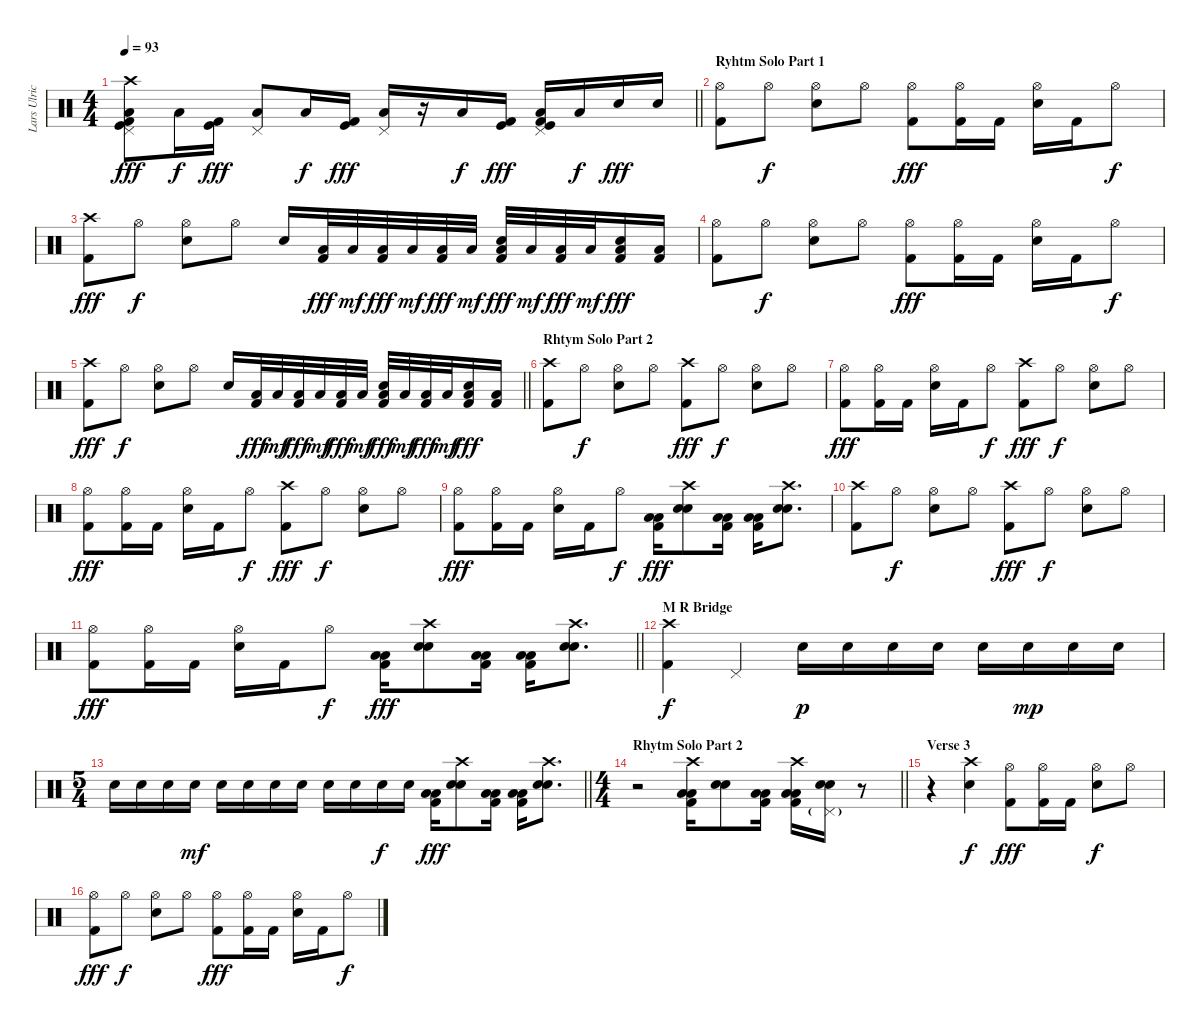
\track ("Lars Ulrich" "Lars Ulric") {instrument percussion}
\staff {score}
\articulation defaults
\ts (4 4)
\tempo 93
\clef neutral
\barLineRight lightlight
\ks c
("Crash high (hit)" "Pedal Hi-Hat (hit)" "Low Floor Tom (hit)" "Kick (hit)" "Kick (hit) 2").8{dy fff} "Low Floor Tom (hit)".16{dy f} ("Kick (hit)" "Kick (hit) 2").16{dy fff} ("Pedal Hi-Hat (hit)" "Low Floor Tom (hit)").8 "Low Floor Tom (hit)".16{dy f} ("Kick (hit)" "Kick (hit) 2").16{dy fff} ("Pedal Hi-Hat (hit)" "Low Floor Tom (hit)").16 r.16 "Low Floor Tom (hit)".16{dy f} ("Kick (hit)" "Kick (hit) 2").16{dy fff} ("Pedal Hi-Hat (hit)" "Low Floor Tom (hit)" "Kick (hit)" "Kick (hit) 2").16 "Low Floor Tom (hit)".16{dy f} "Electric Snare (hit)".16{dy fff} "Electric Snare (hit)".16 |
\section ("" "Ryhtm Solo Part 1")
("Hi-Hat (open)" "Kick (hit) 2").8 "Hi-Hat (open)".8{dy f} ("Hi-Hat (open)" "Snare (hit) 2").8 "Hi-Hat (open)".8 ("Hi-Hat (open)" "Kick (hit) 2").8{dy fff} ("Hi-Hat (open)" "Kick (hit) 2").16 "Kick (hit) 2".16 ("Hi-Hat (open)" "Snare (hit) 2").16 "Kick (hit) 2".16 "Hi-Hat (open)".8{dy f} |
("Crash high (hit)" "Kick (hit) 2").8{dy fff} "Hi-Hat (open)".8{dy f} ("Hi-Hat (open)" "Snare (hit) 2").8 "Hi-Hat (open)".8 "Snare (hit) 2".16 ("Low Floor Tom (hit)" "Kick (hit) 2").32{dy fff} "Low Floor Tom (hit)".32{dy mf} ("Low Floor Tom (hit)" "Kick (hit) 2").32{dy fff} "Low Floor Tom (hit)".32{dy mf} ("Low Floor Tom (hit)" "Kick (hit) 2").32{dy fff} "Low Floor Tom (hit)".32{dy mf} ("Snare (hit) 2" "Low Floor Tom (hit)" "Kick (hit) 2").32{dy fff} "Low Floor Tom (hit)".32{dy mf} ("Low Floor Tom (hit)" "Kick (hit) 2").32{dy fff} "Low Floor Tom (hit)".32{dy mf} ("Snare (hit) 2" "Low Floor Tom (hit)" "Kick (hit) 2").16{dy fff} ("Low Floor Tom (hit)" "Kick (hit) 2").16 |
("Hi-Hat (open)" "Kick (hit) 2").8 "Hi-Hat (open)".8{dy f} ("Hi-Hat (open)" "Snare (hit) 2").8 "Hi-Hat (open)".8 ("Hi-Hat (open)" "Kick (hit) 2").8{dy fff} ("Hi-Hat (open)" "Kick (hit) 2").16 "Kick (hit) 2".16 ("Hi-Hat (open)" "Snare (hit) 2").16 "Kick (hit) 2".16 "Hi-Hat (open)".8{dy f} |
\barLineRight lightlight
("Crash high (hit)" "Kick (hit) 2").8{dy fff} "Hi-Hat (open)".8{dy f} ("Hi-Hat (open)" "Snare (hit) 2").8 "Hi-Hat (open)".8 "Snare (hit) 2".16 ("Low Floor Tom (hit)" "Kick (hit) 2").32{dy fff} "Low Floor Tom (hit)".32{dy mf} ("Low Floor Tom (hit)" "Kick (hit) 2").32{dy fff} "Low Floor Tom (hit)".32{dy mf} ("Low Floor Tom (hit)" "Kick (hit) 2").32{dy fff} "Low Floor Tom (hit)".32{dy mf} ("Snare (hit) 2" "Low Floor Tom (hit)" "Kick (hit) 2").32{dy fff} "Low Floor Tom (hit)".32{dy mf} ("Low Floor Tom (hit)" "Kick (hit) 2").32{dy fff} "Low Floor Tom (hit)".32{dy mf} ("Snare (hit) 2" "Low Floor Tom (hit)" "Kick (hit) 2").16{dy fff} ("Low Floor Tom (hit)" "Kick (hit) 2").16 |
\section ("" "Rhtym Solo Part 2")
("Crash high (hit)" "Kick (hit) 2").8 "Hi-Hat (open)".8{dy f} ("Hi-Hat (open)" "Snare (hit) 2").8 "Hi-Hat (open)".8 ("Crash high (hit)" "Kick (hit) 2").8{dy fff} "Hi-Hat (open)".8{dy f} ("Hi-Hat (open)" "Snare (hit) 2").8 "Hi-Hat (open)".8 |
("Hi-Hat (open)" "Kick (hit) 2").8{dy fff} ("Hi-Hat (open)" "Kick (hit) 2").16 "Kick (hit) 2".16 ("Hi-Hat (open)" "Snare (hit) 2").16 "Kick (hit) 2".16 "Hi-Hat (open)".8{dy f} ("Crash high (hit)" "Kick (hit) 2").8{dy fff} "Hi-Hat (open)".8{dy f} ("Hi-Hat (open)" "Snare (hit) 2").8 "Hi-Hat (open)".8 |
("Hi-Hat (open)" "Kick (hit) 2").8{dy fff} ("Hi-Hat (open)" "Kick (hit) 2").16 "Kick (hit) 2".16 ("Hi-Hat (open)" "Snare (hit) 2").16 "Kick (hit) 2".16 "Hi-Hat (open)".8{dy f} ("Crash high (hit)" "Kick (hit) 2").8{dy fff} "Hi-Hat (open)".8{dy f} ("Hi-Hat (open)" "Snare (hit) 2").8 "Hi-Hat (open)".8 |
("Hi-Hat (open)" "Kick (hit) 2").8{dy fff} ("Hi-Hat (open)" "Kick (hit) 2").16 "Kick (hit) 2".16 ("Hi-Hat (open)" "Snare (hit) 2").16 "Kick (hit) 2".16 "Hi-Hat (open)".8{dy f} ("Low Tom (hit)" "Low Floor Tom (hit)" "Kick (hit) 2").16{dy fff} ("Crash high (hit)" "Electric Snare (hit)" "Snare (hit) 2").8 ("Low Tom (hit)" "Low Floor Tom (hit)" "Kick (hit) 2").16 ("Low Tom (hit)" "Low Floor Tom (hit)" "Kick (hit) 2").16 ("Crash high (hit)" "Electric Snare (hit)" "Snare (hit) 2").8{d} |
("Crash high (hit)" "Kick (hit) 2").8 "Hi-Hat (open)".8{dy f} ("Hi-Hat (open)" "Snare (hit) 2").8 "Hi-Hat (open)".8 ("Crash high (hit)" "Kick (hit) 2").8{dy fff} "Hi-Hat (open)".8{dy f} ("Hi-Hat (open)" "Snare (hit) 2").8 "Hi-Hat (open)".8 |
\barLineRight lightlight
("Hi-Hat (open)" "Kick (hit) 2").8{dy fff} ("Hi-Hat (open)" "Kick (hit) 2").16 "Kick (hit) 2".16 ("Hi-Hat (open)" "Snare (hit) 2").16 "Kick (hit) 2".16 "Hi-Hat (open)".8{dy f} ("Low Tom (hit)" "Low Floor Tom (hit)" "Kick (hit) 2").16{dy fff} ("Crash high (hit)" "Electric Snare (hit)" "Snare (hit) 2").8 ("Low Tom (hit)" "Low Floor Tom (hit)" "Kick (hit) 2").16 ("Low Tom (hit)" "Low Floor Tom (hit)" "Kick (hit) 2").16 ("Crash high (hit)" "Electric Snare (hit)" "Snare (hit) 2").8{d} |
\section ("" "M R Bridge")
("Crash high (hit)" "Kick (hit) 2").4{dy f} "Pedal Hi-Hat (hit)".4 "Snare (hit) 2".16{dy p} "Snare (hit) 2".16 "Snare (hit) 2".16 "Snare (hit) 2".16 "Snare (hit) 2".16 "Snare (hit) 2".16{dy mp} "Snare (hit) 2".16 "Snare (hit) 2".16 |
\ts (5 4)
\barLineRight lightlight "Snare (hit) 2".16 "Snare (hit) 2".16 "Snare (hit) 2".16 "Snare (hit) 2".16{dy mf} "Snare (hit) 2".16 "Snare (hit) 2".16 "Snare (hit) 2".16 "Snare (hit) 2".16 "Snare (hit) 2".16 "Snare (hit) 2".16 "Snare (hit) 2".16{dy f} "Snare (hit) 2".16
("Low Tom (hit)" "Low Floor Tom (hit)" "Kick (hit) 2").16{dy fff} ("Crash high (hit)" "Electric Snare (hit)" "Snare (hit) 2").8 ("Low Tom (hit)" "Low Floor Tom (hit)" "Kick (hit) 2").16 ("Low Tom (hit)" "Low Floor Tom (hit)" "Kick (hit) 2").16 ("Crash high (hit)" "Electric Snare (hit)" "Snare (hit) 2").8{d} |
\ts (4 4)
\section ("" "Rhytm Solo Part 2")
\barLineRight lightlight
r.2 ("Crash high (hit)" "Low Tom (hit)" "Low Floor Tom (hit)" "Kick (hit) 2").16 ("Electric Snare (hit)" "Snare (hit) 2").8 ("Low Tom (hit)" "Low Floor Tom (hit)" "Kick (hit) 2").16 ("Crash high (hit)" "Low Tom (hit)" "Low Floor Tom (hit)" "Kick (hit) 2").16 ("Pedal Hi-Hat (hit)"{g} "Electric Snare (hit)" "Snare (hit) 2").16 r.8 |
\section ("" "Verse 3")
r.4 ("Crash high (hit)" "Snare (hit) 2").4{dy f} ("Hi-Hat (open)" "Kick (hit) 2").8{dy fff} ("Hi-Hat (open)" "Kick (hit) 2").16 "Kick (hit) 2".16 ("Hi-Hat (open)" "Snare (hit) 2").8{dy f} "Hi-Hat (open)".8 |
("Hi-Hat (open)" "Kick (hit) 2").8{dy fff} "Hi-Hat (open)".8{dy f} ("Hi-Hat (open)" "Snare (hit) 2").8 "Hi-Hat (open)".8 ("Hi-Hat (open)" "Kick (hit) 2").8{dy fff} ("Hi-Hat (open)" "Kick (hit) 2").16 "Kick (hit) 2".16 ("Hi-Hat (open)" "Snare (hit) 2").16 "Kick (hit) 2".16 "Hi-Hat (open)".8{dy f}
